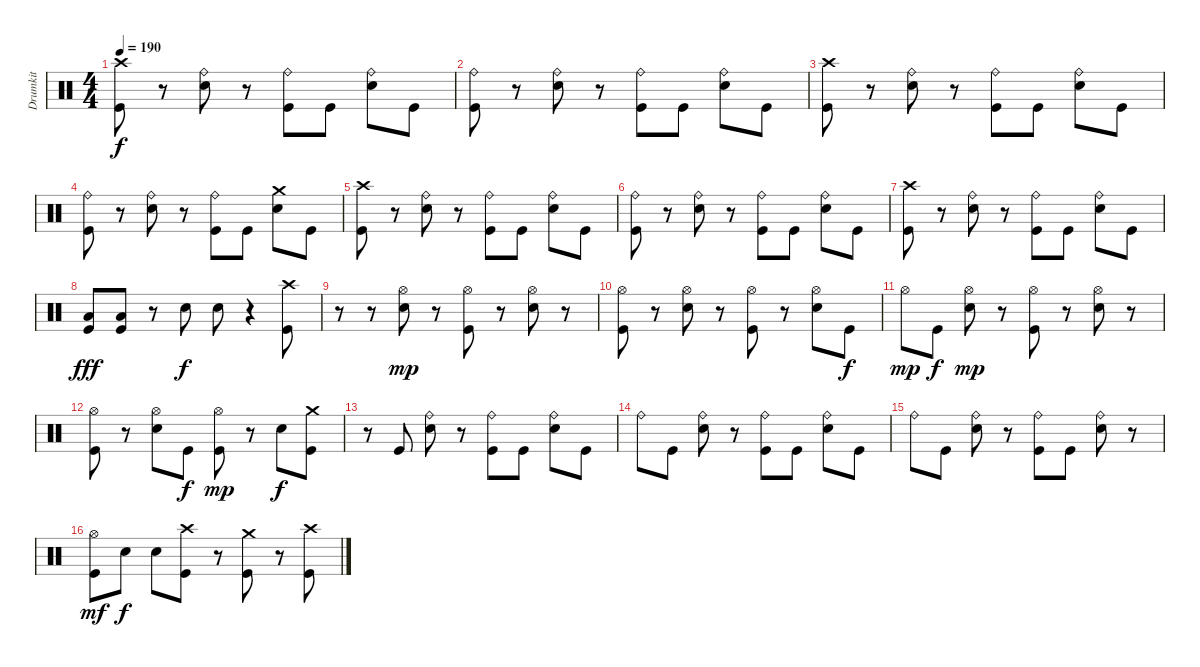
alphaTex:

\track ("Drumkit" "Drumkit") {instrument percussion}
\staff {score}
\articulation defaults
\ts (4 4)
\tempo 190
\clef neutral
\ks c
("Crash high (hit)" "Kick (hit)").8{dy f} r.8 ("Ride (bell)" "Snare (hit) 2").8 r.8 ("Ride (bell)" "Kick (hit)").8 "Kick (hit)".8 ("Ride (bell)" "Snare (hit) 2").8 "Kick (hit)".8 |
("Ride (bell)" "Kick (hit)").8 r.8 ("Ride (bell)" "Snare (hit) 2").8 r.8 ("Ride (bell)" "Kick (hit)").8 "Kick (hit)".8 ("Ride (bell)" "Snare (hit) 2").8 "Kick (hit)".8 |
("Crash high (hit)" "Kick (hit)").8 r.8 ("Ride (bell)" "Snare (hit) 2").8 r.8 ("Ride (bell)" "Kick (hit)").8 "Kick (hit)".8 ("Ride (bell)" "Snare (hit) 2").8 "Kick (hit)".8 |
("Ride (bell)" "Kick (hit)").8 r.8 ("Ride (bell)" "Snare (hit) 2").8 r.8 ("Ride (bell)" "Kick (hit)").8 "Kick (hit)".8 ("Crash medium (hit)" "Snare (hit) 2").8 "Kick (hit)".8 |
("Crash high (hit)" "Kick (hit)").8 r.8 ("Ride (bell)" "Snare (hit) 2").8 r.8 ("Ride (bell)" "Kick (hit)").8 "Kick (hit)".8 ("Ride (bell)" "Snare (hit) 2").8 "Kick (hit)".8 |
("Ride (bell)" "Kick (hit)").8 r.8 ("Ride (bell)" "Snare (hit) 2").8 r.8 ("Ride (bell)" "Kick (hit)").8 "Kick (hit)".8 ("Ride (bell)" "Snare (hit) 2").8 "Kick (hit)".8 |
("Crash high (hit)" "Kick (hit)").8 r.8 ("Ride (bell)" "Snare (hit) 2").8 r.8 ("Ride (bell)" "Kick (hit)").8 "Kick (hit)".8 ("Ride (bell)" "Snare (hit) 2").8 "Kick (hit)".8 |
("Low Floor Tom (hit)" "Kick (hit)").8{dy fff} ("Low Floor Tom (hit)" "Kick (hit)").8 r.8 "Snare (hit) 2".8{dy f} "Snare (hit) 2".8 r.4 ("Crash high (hit)" "Kick (hit)").8 |
r.8 r.8 ("Hi-Hat (open)" "Snare (hit) 2").8{dy mp} r.8 ("Hi-Hat (open)" "Kick (hit)").8 r.8 ("Hi-Hat (open)" "Snare (hit) 2").8 r.8 |
("Hi-Hat (open)" "Kick (hit)").8 r.8 ("Hi-Hat (open)" "Snare (hit) 2").8 r.8 ("Hi-Hat (open)" "Kick (hit)").8 r.8 ("Hi-Hat (open)" "Snare (hit) 2").8 "Kick (hit)".8{dy f} |
"Hi-Hat (open)".8{dy mp} "Kick (hit)".8{dy f} ("Hi-Hat (open)" "Snare (hit) 2").8{dy mp} r.8 ("Hi-Hat (open)" "Kick (hit)").8 r.8 ("Hi-Hat (open)" "Snare (hit) 2").8 r.8 |
("Hi-Hat (open)" "Kick (hit)").8 r.8 ("Hi-Hat (open)" "Snare (hit) 2").8 "Kick (hit)".8{dy f} ("Hi-Hat (open)" "Kick (hit)").8{dy mp} r.8 "Snare (hit) 2".8{dy f} ("Crash medium (hit)" "Kick (hit)").8 |
r.8 "Kick (hit)".8 ("Ride (bell)" "Snare (hit) 2").8 r.8 ("Ride (bell)" "Kick (hit)").8 "Kick (hit)".8 ("Ride (bell)" "Snare (hit) 2").8 "Kick (hit)".8 |
"Ride (bell)".8 "Kick (hit)".8 ("Ride (bell)" "Snare (hit) 2").8 r.8 ("Ride (bell)" "Kick (hit)").8 "Kick (hit)".8 ("Ride (bell)" "Snare (hit) 2").8 "Kick (hit)".8 |
"Ride (bell)".8 "Kick (hit)".8 ("Ride (bell)" "Snare (hit) 2").8 r.8 ("Ride (bell)" "Kick (hit)").8 "Kick (hit)".8 ("Ride (bell)" "Snare (hit) 2").8 r.8 |
("Hi-Hat (open)" "Kick (hit)").8{dy mf} "Snare (hit) 2".8{dy f} "Snare (hit) 2".8 ("Crash high (hit)" "Kick (hit)").8 r.8 ("Crash medium (hit)" "Kick (hit)").8 r.8 ("Crash high (hit)" "Kick (hit)").8
